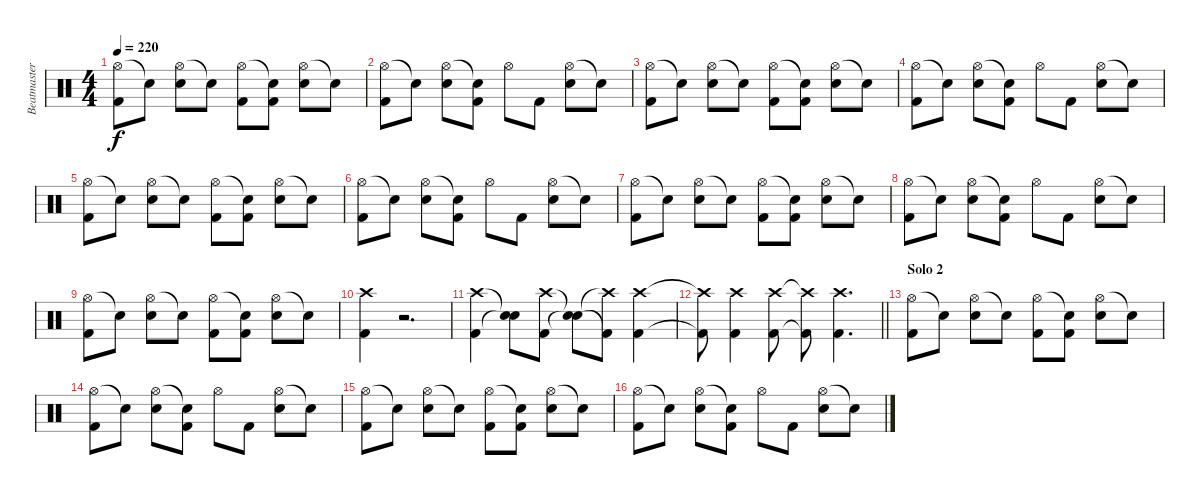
\track ("Beatmaster V" "Beatmaster") {instrument percussion}
\staff {score}
\articulation defaults
\ts (4 4)
\tempo 220
\clef neutral
\ks c
("Hi-Hat (open)" "Kick (hit) 2").8{dy f} "Snare (hit)"{t}.8 ("Hi-Hat (open)" "Snare (hit) 2").8 "Snare (hit)"{t}.8 ("Hi-Hat (open)" "Kick (hit) 2").8 ("Snare (hit)"{t} "Kick (hit) 2").8 ("Hi-Hat (open)" "Snare (hit) 2").8 "Snare (hit)"{t}.8 |
("Hi-Hat (open)" "Kick (hit) 2").8 "Snare (hit)"{t}.8 ("Hi-Hat (open)" "Snare (hit) 2").8 ("Snare (hit)"{t} "Kick (hit) 2").8 "Hi-Hat (open)".8 "Kick (hit) 2".8 ("Hi-Hat (open)" "Snare (hit) 2").8 "Snare (hit)"{t}.8 |
("Hi-Hat (open)" "Kick (hit) 2").8 "Snare (hit)"{t}.8 ("Hi-Hat (open)" "Snare (hit) 2").8 "Snare (hit)"{t}.8 ("Hi-Hat (open)" "Kick (hit) 2").8 ("Snare (hit)"{t} "Kick (hit) 2").8 ("Hi-Hat (open)" "Snare (hit) 2").8 "Snare (hit)"{t}.8 |
("Hi-Hat (open)" "Kick (hit) 2").8 "Snare (hit)"{t}.8 ("Hi-Hat (open)" "Snare (hit) 2").8 ("Snare (hit)"{t} "Kick (hit) 2").8 "Hi-Hat (open)".8 "Kick (hit) 2".8 ("Hi-Hat (open)" "Snare (hit) 2").8 "Snare (hit)"{t}.8 |
("Hi-Hat (open)" "Kick (hit) 2").8 "Snare (hit)"{t}.8 ("Hi-Hat (open)" "Snare (hit) 2").8 "Snare (hit)"{t}.8 ("Hi-Hat (open)" "Kick (hit) 2").8 ("Snare (hit)"{t} "Kick (hit) 2").8 ("Hi-Hat (open)" "Snare (hit) 2").8 "Snare (hit)"{t}.8 |
("Hi-Hat (open)" "Kick (hit) 2").8 "Snare (hit)"{t}.8 ("Hi-Hat (open)" "Snare (hit) 2").8 ("Snare (hit)"{t} "Kick (hit) 2").8 "Hi-Hat (open)".8 "Kick (hit) 2".8 ("Hi-Hat (open)" "Snare (hit) 2").8 "Snare (hit)"{t}.8 |
("Hi-Hat (open)" "Kick (hit) 2").8 "Snare (hit)"{t}.8 ("Hi-Hat (open)" "Snare (hit) 2").8 "Snare (hit)"{t}.8 ("Hi-Hat (open)" "Kick (hit) 2").8 ("Snare (hit)"{t} "Kick (hit) 2").8 ("Hi-Hat (open)" "Snare (hit) 2").8 "Snare (hit)"{t}.8 |
("Hi-Hat (open)" "Kick (hit) 2").8 "Snare (hit)"{t}.8 ("Hi-Hat (open)" "Snare (hit) 2").8 ("Snare (hit)"{t} "Kick (hit) 2").8 "Hi-Hat (open)".8 "Kick (hit) 2".8 ("Hi-Hat (open)" "Snare (hit) 2").8 "Snare (hit)"{t}.8 |
("Hi-Hat (open)" "Kick (hit) 2").8 "Snare (hit)"{t}.8 ("Hi-Hat (open)" "Snare (hit) 2").8 "Snare (hit)"{t}.8 ("Hi-Hat (open)" "Kick (hit) 2").8 ("Snare (hit)"{t} "Kick (hit) 2").8 ("Hi-Hat (open)" "Snare (hit) 2").8 "Snare (hit)"{t}.8 |
("Crash high (hit)" "Kick (hit) 2").4 r.2{d} |
("Crash high (hit)" "Kick (hit) 2").4 ("Snare (hit)"{t} "Snare (hit)"{t}).8 ("Crash high (hit)" "Kick (hit) 2").8 ("Snare (hit)"{t} "Snare (hit)"{t}).8 ("Crash high (hit)"{t} "Kick (hit) 2"{t}).8 ("Crash high (hit)" "Kick (hit) 2").4 |
\barLineRight lightlight
("Crash high (hit)"{t} "Kick (hit) 2"{t}).8 ("Crash high (hit)" "Kick (hit) 2").4 ("Crash high (hit)" "Kick (hit) 2").8 ("Crash high (hit)"{t} "Kick (hit) 2"{t}).8 ("Crash high (hit)" "Kick (hit) 2").4{d} |
\section ("" "Solo 2")
("Hi-Hat (open)" "Kick (hit) 2").8 "Snare (hit)"{t}.8 ("Hi-Hat (open)" "Snare (hit) 2").8 "Snare (hit)"{t}.8 ("Hi-Hat (open)" "Kick (hit) 2").8 ("Snare (hit)"{t} "Kick (hit) 2").8 ("Hi-Hat (open)" "Snare (hit) 2").8 "Snare (hit)"{t}.8 |
("Hi-Hat (open)" "Kick (hit) 2").8 "Snare (hit)"{t}.8 ("Hi-Hat (open)" "Snare (hit) 2").8 ("Snare (hit)"{t} "Kick (hit) 2").8 "Hi-Hat (open)".8 "Kick (hit) 2".8 ("Hi-Hat (open)" "Snare (hit) 2").8 "Snare (hit)"{t}.8 |
("Hi-Hat (open)" "Kick (hit) 2").8 "Snare (hit)"{t}.8 ("Hi-Hat (open)" "Snare (hit) 2").8 "Snare (hit)"{t}.8 ("Hi-Hat (open)" "Kick (hit) 2").8 ("Snare (hit)"{t} "Kick (hit) 2").8 ("Hi-Hat (open)" "Snare (hit) 2").8 "Snare (hit)"{t}.8 |
("Hi-Hat (open)" "Kick (hit) 2").8 "Snare (hit)"{t}.8 ("Hi-Hat (open)" "Snare (hit) 2").8 ("Snare (hit)"{t} "Kick (hit) 2").8 "Hi-Hat (open)".8 "Kick (hit) 2".8 ("Hi-Hat (open)" "Snare (hit) 2").8 "Snare (hit)"{t}.8
